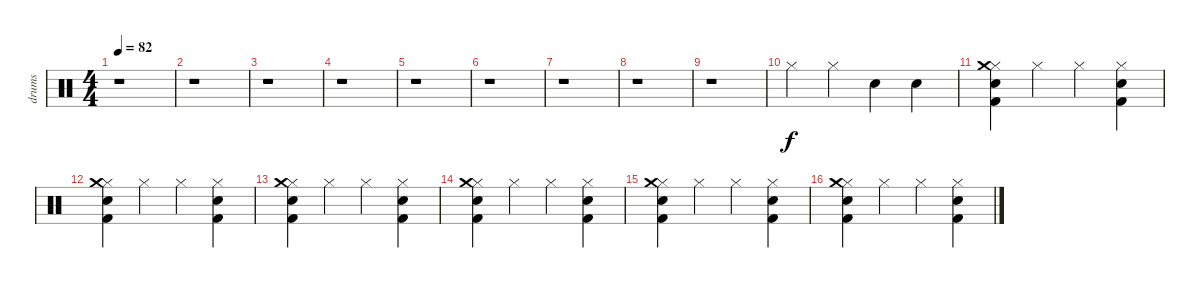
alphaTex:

\track ("drums" "drums") {instrument percussion}
\staff {score}
\articulation defaults
\ts (4 4)
\tempo 82
\clef neutral
\ks c
r.1{dy f} |
r.1 |
r.1 |
r.1 |
r.1 |
r.1 |
r.1 |
r.1 |
r.1 |
"Hi-Hat (closed)".4 "Hi-Hat (closed)".4 "Snare (hit) 2".4 "Electric Snare (hit)".4 |
("Hi-Hat (closed)" "Snare (hit) 2" "Kick (hit) 2" "Crash medium (hit)").4 "Hi-Hat (closed)".4 "Hi-Hat (closed)".4 ("Hi-Hat (closed)" "Snare (hit) 2" "Kick (hit) 2").4 |
("Hi-Hat (closed)" "Snare (hit) 2" "Kick (hit) 2" "Crash medium (hit)").4 "Hi-Hat (closed)".4 "Hi-Hat (closed)".4 ("Hi-Hat (closed)" "Snare (hit) 2" "Kick (hit) 2").4 |
("Hi-Hat (closed)" "Snare (hit) 2" "Kick (hit) 2" "Crash medium (hit)").4 "Hi-Hat (closed)".4 "Hi-Hat (closed)".4 ("Hi-Hat (closed)" "Snare (hit) 2" "Kick (hit) 2").4 |
("Hi-Hat (closed)" "Snare (hit) 2" "Kick (hit) 2" "Crash medium (hit)").4 "Hi-Hat (closed)".4 "Hi-Hat (closed)".4 ("Hi-Hat (closed)" "Snare (hit) 2" "Kick (hit) 2").4 |
("Hi-Hat (closed)" "Snare (hit) 2" "Kick (hit) 2" "Crash medium (hit)").4 "Hi-Hat (closed)".4 "Hi-Hat (closed)".4 ("Hi-Hat (closed)" "Snare (hit) 2" "Kick (hit) 2").4 |
("Hi-Hat (closed)" "Snare (hit) 2" "Kick (hit) 2" "Crash medium (hit)").4 "Hi-Hat (closed)".4 "Hi-Hat (closed)".4 ("Hi-Hat (closed)" "Snare (hit) 2" "Kick (hit) 2").4
